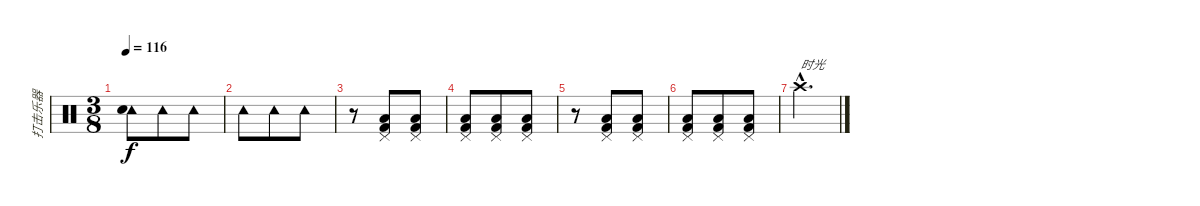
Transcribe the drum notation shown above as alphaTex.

\track ("打击乐器" "打击乐器") {instrument percussion}
\staff {score}
\articulation defaults
\ts (3 8)
\tempo 116
\clef neutral
\ks c
("Tambourine (hit)" "Snare (hit) 2").8{dy f} "Tambourine (hit)".8 "Tambourine (hit)".8 |
"Tambourine (hit)".8 "Tambourine (hit)".8 "Tambourine (hit)".8 |
r.8 ("Pedal Hi-Hat (hit)" "Kick (hit) 2" "Low Floor Tom (hit)").8 ("Pedal Hi-Hat (hit)" "Kick (hit) 2" "Low Floor Tom (hit)").8 |
("Pedal Hi-Hat (hit)" "Kick (hit) 2" "Low Floor Tom (hit)").8 ("Pedal Hi-Hat (hit)" "Kick (hit) 2" "Low Floor Tom (hit)").8 ("Pedal Hi-Hat (hit)" "Kick (hit) 2" "Low Floor Tom (hit)").8 |
r.8 ("Pedal Hi-Hat (hit)" "Kick (hit) 2" "Low Floor Tom (hit)").8 ("Pedal Hi-Hat (hit)" "Kick (hit) 2" "Low Floor Tom (hit)").8 |
("Pedal Hi-Hat (hit)" "Kick (hit) 2" "Low Floor Tom (hit)").8 ("Pedal Hi-Hat (hit)" "Kick (hit) 2" "Low Floor Tom (hit)").8 ("Pedal Hi-Hat (hit)" "Kick (hit) 2" "Low Floor Tom (hit)").8 |
"Crash high (hit)"{hac}.4{d txt "时光"}
